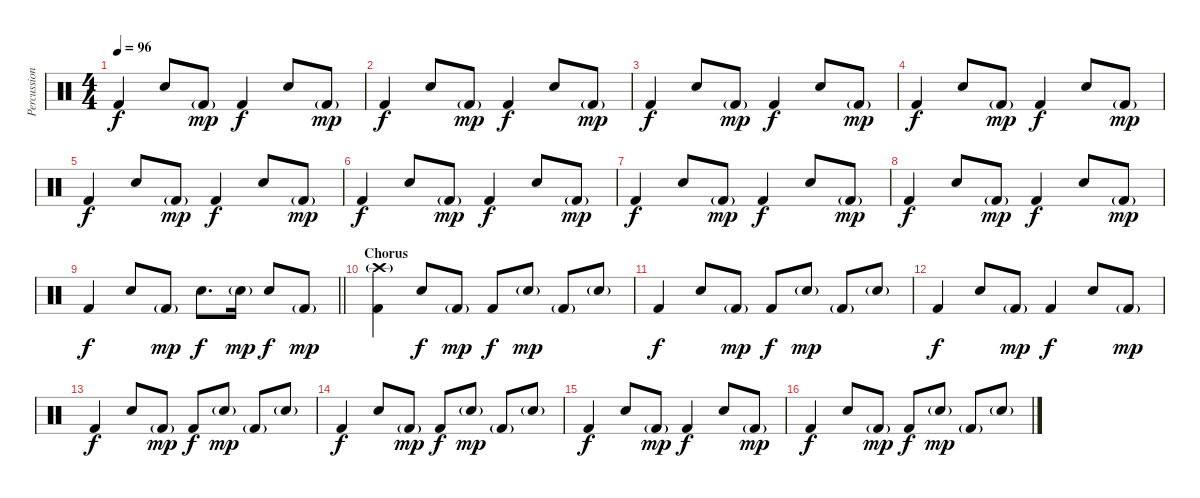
\track ("Percussion" "Percussion") {instrument percussion}
\staff {score}
\articulation defaults
\ts (4 4)
\tempo 96
\clef neutral
\ks c "Kick (hit) 2".4{dy f} "Snare (hit) 2".8 "Kick (hit) 2"{g}.8{dy mp} "Kick (hit) 2".4{dy f} "Snare (hit) 2".8 "Kick (hit) 2"{g}.8{dy mp}
|
"Kick (hit) 2".4{dy f} "Snare (hit) 2".8 "Kick (hit) 2"{g}.8{dy mp} "Kick (hit) 2".4{dy f} "Snare (hit) 2".8 "Kick (hit) 2"{g}.8{dy mp} |
"Kick (hit) 2".4{dy f} "Snare (hit) 2".8 "Kick (hit) 2"{g}.8{dy mp} "Kick (hit) 2".4{dy f} "Snare (hit) 2".8 "Kick (hit) 2"{g}.8{dy mp} |
"Kick (hit) 2".4{dy f} "Snare (hit) 2".8 "Kick (hit) 2"{g}.8{dy mp} "Kick (hit) 2".4{dy f} "Snare (hit) 2".8 "Kick (hit) 2"{g}.8{dy mp} |
"Kick (hit) 2".4{dy f} "Snare (hit) 2".8 "Kick (hit) 2"{g}.8{dy mp} "Kick (hit) 2".4{dy f} "Snare (hit) 2".8 "Kick (hit) 2"{g}.8{dy mp} |
"Kick (hit) 2".4{dy f} "Snare (hit) 2".8 "Kick (hit) 2"{g}.8{dy mp} "Kick (hit) 2".4{dy f} "Snare (hit) 2".8 "Kick (hit) 2"{g}.8{dy mp} |
"Kick (hit) 2".4{dy f} "Snare (hit) 2".8 "Kick (hit) 2"{g}.8{dy mp} "Kick (hit) 2".4{dy f} "Snare (hit) 2".8 "Kick (hit) 2"{g}.8{dy mp} |
"Kick (hit) 2".4{dy f} "Snare (hit) 2".8 "Kick (hit) 2"{g}.8{dy mp} "Kick (hit) 2".4{dy f} "Snare (hit) 2".8 "Kick (hit) 2"{g}.8{dy mp} |
\barLineRight lightlight "Kick (hit) 2".4{dy f} "Snare (hit) 2".8 "Kick (hit) 2"{g}.8{dy mp} "Snare (hit) 2".8{d dy f} "Snare (hit) 2"{g}.16{dy mp} "Snare (hit) 2".8{dy f} "Kick (hit) 2"{g}.8{dy mp}
|
\section ("" "Chorus")
("Crash high (hit)"{g} "Kick (hit) 2").4 "Snare (hit) 2".8{dy f} "Kick (hit) 2"{g}.8{dy mp} "Kick (hit) 2".8{dy f} "Snare (hit) 2"{g}.8{dy mp} "Kick (hit) 2"{g}.8 "Snare (hit) 2"{g}.8 |
"Kick (hit) 2".4{dy f} "Snare (hit) 2".8 "Kick (hit) 2"{g}.8{dy mp} "Kick (hit) 2".8{dy f} "Snare (hit) 2"{g}.8{dy mp} "Kick (hit) 2"{g}.8 "Snare (hit) 2"{g}.8 |
"Kick (hit) 2".4{dy f} "Snare (hit) 2".8 "Kick (hit) 2"{g}.8{dy mp} "Kick (hit) 2".4{dy f} "Snare (hit) 2".8 "Kick (hit) 2"{g}.8{dy mp} |
"Kick (hit) 2".4{dy f} "Snare (hit) 2".8 "Kick (hit) 2"{g}.8{dy mp} "Kick (hit) 2".8{dy f} "Snare (hit) 2"{g}.8{dy mp} "Kick (hit) 2"{g}.8 "Snare (hit) 2"{g}.8 |
"Kick (hit) 2".4{dy f} "Snare (hit) 2".8 "Kick (hit) 2"{g}.8{dy mp} "Kick (hit) 2".8{dy f} "Snare (hit) 2"{g}.8{dy mp} "Kick (hit) 2"{g}.8 "Snare (hit) 2"{g}.8 |
"Kick (hit) 2".4{dy f} "Snare (hit) 2".8 "Kick (hit) 2"{g}.8{dy mp} "Kick (hit) 2".4{dy f} "Snare (hit) 2".8 "Kick (hit) 2"{g}.8{dy mp} |
"Kick (hit) 2".4{dy f} "Snare (hit) 2".8 "Kick (hit) 2"{g}.8{dy mp} "Kick (hit) 2".8{dy f} "Snare (hit) 2"{g}.8{dy mp} "Kick (hit) 2"{g}.8 "Snare (hit) 2"{g}.8
